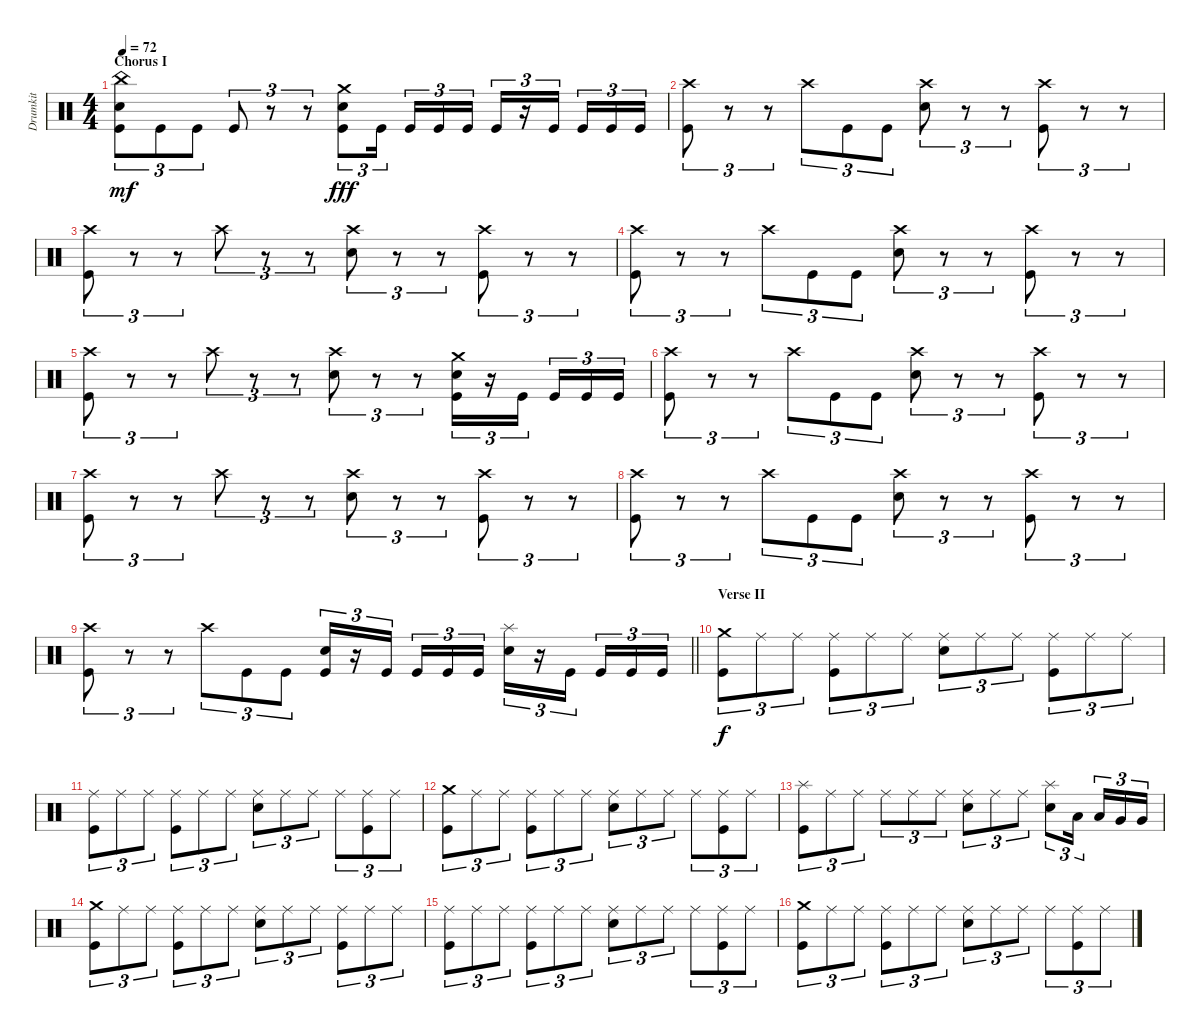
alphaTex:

\track ("Drumkit" "Drumkit") {instrument percussion}
\staff {score}
\articulation defaults
\ts (4 4)
\section ("" "Chorus I")
\tempo 72
\clef neutral
\ks c
("Snare (hit) 2" "Kick (hit)" "China (hit)").8{tu (3 2) dy mf} "Kick (hit)".8{tu (3 2)} "Kick (hit)".8{tu (3 2)} "Kick (hit)".8{tu (3 2)} r.8{tu (3 2)} r.8{tu (3 2)} ("Kick (hit)" "Snare (hit) 2" "Crash medium (hit)").8{tu (3 2) dy fff} "Kick (hit)".16{tu (3 2) beam splitsecondary} "Kick (hit)".16{tu (3 2)} "Kick (hit)".16{tu (3 2)} "Kick (hit)".16{tu (3 2)} "Kick (hit)".16{tu (3 2)} r.16{tu (3 2)} "Kick (hit)".16{tu (3 2) beam splitsecondary} "Kick (hit)".16{tu (3 2)} "Kick (hit)".16{tu (3 2)} "Kick (hit)".16{tu (3 2)} |
("Kick (hit)" "Crash high (hit)").8{tu (3 2)} r.8{tu (3 2)} r.8{tu (3 2)} "Crash high (hit)".8{tu (3 2)} "Kick (hit)".8{tu (3 2)} "Kick (hit)".8{tu (3 2)} ("Snare (hit) 2" "Crash high (hit)").8{tu (3 2)} r.8{tu (3 2)} r.8{tu (3 2)} ("Kick (hit)" "Crash high (hit)").8{tu (3 2)} r.8{tu (3 2)} r.8{tu (3 2)} |
("Kick (hit)" "Crash high (hit)").8{tu (3 2)} r.8{tu (3 2)} r.8{tu (3 2)} "Crash high (hit)".8{tu (3 2)} r.8{tu (3 2)} r.8{tu (3 2)} ("Snare (hit) 2" "Crash high (hit)").8{tu (3 2)} r.8{tu (3 2)} r.8{tu (3 2)} ("Kick (hit)" "Crash high (hit)").8{tu (3 2)} r.8{tu (3 2)} r.8{tu (3 2)} |
("Kick (hit)" "Crash high (hit)").8{tu (3 2)} r.8{tu (3 2)} r.8{tu (3 2)} "Crash high (hit)".8{tu (3 2)} "Kick (hit)".8{tu (3 2)} "Kick (hit)".8{tu (3 2)} ("Snare (hit) 2" "Crash high (hit)").8{tu (3 2)} r.8{tu (3 2)} r.8{tu (3 2)} ("Kick (hit)" "Crash high (hit)").8{tu (3 2)} r.8{tu (3 2)} r.8{tu (3 2)} |
("Kick (hit)" "Crash high (hit)").8{tu (3 2)} r.8{tu (3 2)} r.8{tu (3 2)} "Crash high (hit)".8{tu (3 2)} r.8{tu (3 2)} r.8{tu (3 2)} ("Snare (hit) 2" "Crash high (hit)").8{tu (3 2)} r.8{tu (3 2)} r.8{tu (3 2)} ("Kick (hit)" "Crash medium (hit)" "Snare (hit) 2").16{tu (3 2)} r.16{tu (3 2)} "Kick (hit)".16{tu (3 2) beam splitsecondary} "Kick (hit)".16{tu (3 2)} "Kick (hit)".16{tu (3 2)} "Kick (hit)".16{tu (3 2)} |
("Kick (hit)" "Crash high (hit)").8{tu (3 2)} r.8{tu (3 2)} r.8{tu (3 2)} "Crash high (hit)".8{tu (3 2)} "Kick (hit)".8{tu (3 2)} "Kick (hit)".8{tu (3 2)} ("Snare (hit) 2" "Crash high (hit)").8{tu (3 2)} r.8{tu (3 2)} r.8{tu (3 2)} ("Kick (hit)" "Crash high (hit)").8{tu (3 2)} r.8{tu (3 2)} r.8{tu (3 2)} |
("Kick (hit)" "Crash high (hit)").8{tu (3 2)} r.8{tu (3 2)} r.8{tu (3 2)} "Crash high (hit)".8{tu (3 2)} r.8{tu (3 2)} r.8{tu (3 2)} ("Snare (hit) 2" "Crash high (hit)").8{tu (3 2)} r.8{tu (3 2)} r.8{tu (3 2)} ("Kick (hit)" "Crash high (hit)").8{tu (3 2)} r.8{tu (3 2)} r.8{tu (3 2)} |
("Kick (hit)" "Crash high (hit)").8{tu (3 2)} r.8{tu (3 2)} r.8{tu (3 2)} "Crash high (hit)".8{tu (3 2)} "Kick (hit)".8{tu (3 2)} "Kick (hit)".8{tu (3 2)} ("Snare (hit) 2" "Crash high (hit)").8{tu (3 2)} r.8{tu (3 2)} r.8{tu (3 2)} ("Kick (hit)" "Crash high (hit)").8{tu (3 2)} r.8{tu (3 2)} r.8{tu (3 2)} |
\barLineRight lightlight
("Kick (hit)" "Crash high (hit)").8{tu (3 2)} r.8{tu (3 2)} r.8{tu (3 2)} "Crash high (hit)".8{tu (3 2)} "Kick (hit)".8{tu (3 2)} "Kick (hit)".8{tu (3 2)} ("Kick (hit)" "Snare (hit) 2").16{tu (3 2)} r.16{tu (3 2)} "Kick (hit)".16{tu (3 2) beam splitsecondary} "Kick (hit)".16{tu (3 2)} "Kick (hit)".16{tu (3 2)} "Kick (hit)".16{tu (3 2)} ("Snare (hit) 2" "Splash (hit)").16{tu (3 2)} r.16{tu (3 2)} "Kick (hit)".16{tu (3 2) beam splitsecondary} "Kick (hit)".16{tu (3 2)} "Kick (hit)".16{tu (3 2)} "Kick (hit)".16{tu (3 2)} |
\section ("" "Verse II")
("Kick (hit)" "Crash medium (hit)").8{tu (3 2) dy f} "Ride (middle)".8{tu (3 2)} "Ride (middle)".8{tu (3 2)} ("Ride (middle)" "Kick (hit)").8{tu (3 2)} "Ride (middle)".8{tu (3 2)} "Ride (middle)".8{tu (3 2)} ("Snare (hit) 2" "Ride (middle)").8{tu (3 2)} "Ride (middle)".8{tu (3 2)} "Ride (middle)".8{tu (3 2)} ("Kick (hit)" "Ride (middle)").8{tu (3 2)} "Ride (middle)".8{tu (3 2)} "Ride (middle)".8{tu (3 2)} |
("Kick (hit)" "Ride (middle)").8{tu (3 2)} "Ride (middle)".8{tu (3 2)} "Ride (middle)".8{tu (3 2)} ("Ride (middle)" "Kick (hit)").8{tu (3 2)} "Ride (middle)".8{tu (3 2)} "Ride (middle)".8{tu (3 2)} ("Snare (hit) 2" "Ride (middle)").8{tu (3 2)} "Ride (middle)".8{tu (3 2)} "Ride (middle)".8{tu (3 2)} "Ride (middle)".8{tu (3 2)} ("Ride (middle)" "Kick (hit)").8{tu (3 2)} "Ride (middle)".8{tu (3 2)} |
("Crash medium (hit)" "Kick (hit)").8{tu (3 2)} "Ride (middle)".8{tu (3 2)} "Ride (middle)".8{tu (3 2)} ("Ride (middle)" "Kick (hit)").8{tu (3 2)} "Ride (middle)".8{tu (3 2)} "Ride (middle)".8{tu (3 2)} ("Snare (hit) 2" "Ride (middle)").8{tu (3 2)} "Ride (middle)".8{tu (3 2)} "Ride (middle)".8{tu (3 2)} "Ride (middle)".8{tu (3 2)} ("Ride (middle)" "Kick (hit)").8{tu (3 2)} "Ride (middle)".8{tu (3 2)} |
("Kick (hit)" "Splash (hit)").8{tu (3 2)} "Ride (middle)".8{tu (3 2)} "Ride (middle)".8{tu (3 2)} "Ride (middle)".8{tu (3 2)} "Ride (middle)".8{tu (3 2)} "Ride (middle)".8{tu (3 2)} ("Snare (hit) 2" "Ride (middle)").8{tu (3 2)} "Ride (middle)".8{tu (3 2)} "Ride (middle)".8{tu (3 2)} ("Snare (hit) 2" "Splash (hit)").8{tu (3 2)} "Low Tom (hit)".16{tu (3 2) beam splitsecondary} "Low Tom (hit)".16{tu (3 2)} "Very Low Tom (hit)".16{tu (3 2)} "Very Low Tom (hit)".16{tu (3 2)} |
("Kick (hit)" "Crash medium (hit)").8{tu (3 2)} "Ride (middle)".8{tu (3 2)} "Ride (middle)".8{tu (3 2)} ("Ride (middle)" "Kick (hit)").8{tu (3 2)} "Ride (middle)".8{tu (3 2)} "Ride (middle)".8{tu (3 2)} ("Snare (hit) 2" "Ride (middle)").8{tu (3 2)} "Ride (middle)".8{tu (3 2)} "Ride (middle)".8{tu (3 2)} ("Kick (hit)" "Ride (middle)").8{tu (3 2)} "Ride (middle)".8{tu (3 2)} "Ride (middle)".8{tu (3 2)} |
("Kick (hit)" "Ride (middle)").8{tu (3 2)} "Ride (middle)".8{tu (3 2)} "Ride (middle)".8{tu (3 2)} ("Ride (middle)" "Kick (hit)").8{tu (3 2)} "Ride (middle)".8{tu (3 2)} "Ride (middle)".8{tu (3 2)} ("Snare (hit) 2" "Ride (middle)").8{tu (3 2)} "Ride (middle)".8{tu (3 2)} "Ride (middle)".8{tu (3 2)} "Ride (middle)".8{tu (3 2)} ("Ride (middle)" "Kick (hit)").8{tu (3 2)} "Ride (middle)".8{tu (3 2)} |
("Crash medium (hit)" "Kick (hit)").8{tu (3 2)} "Ride (middle)".8{tu (3 2)} "Ride (middle)".8{tu (3 2)} ("Ride (middle)" "Kick (hit)").8{tu (3 2)} "Ride (middle)".8{tu (3 2)} "Ride (middle)".8{tu (3 2)} ("Snare (hit) 2" "Ride (middle)").8{tu (3 2)} "Ride (middle)".8{tu (3 2)} "Ride (middle)".8{tu (3 2)} "Ride (middle)".8{tu (3 2)} ("Ride (middle)" "Kick (hit)").8{tu (3 2)} "Ride (middle)".8{tu (3 2)}
